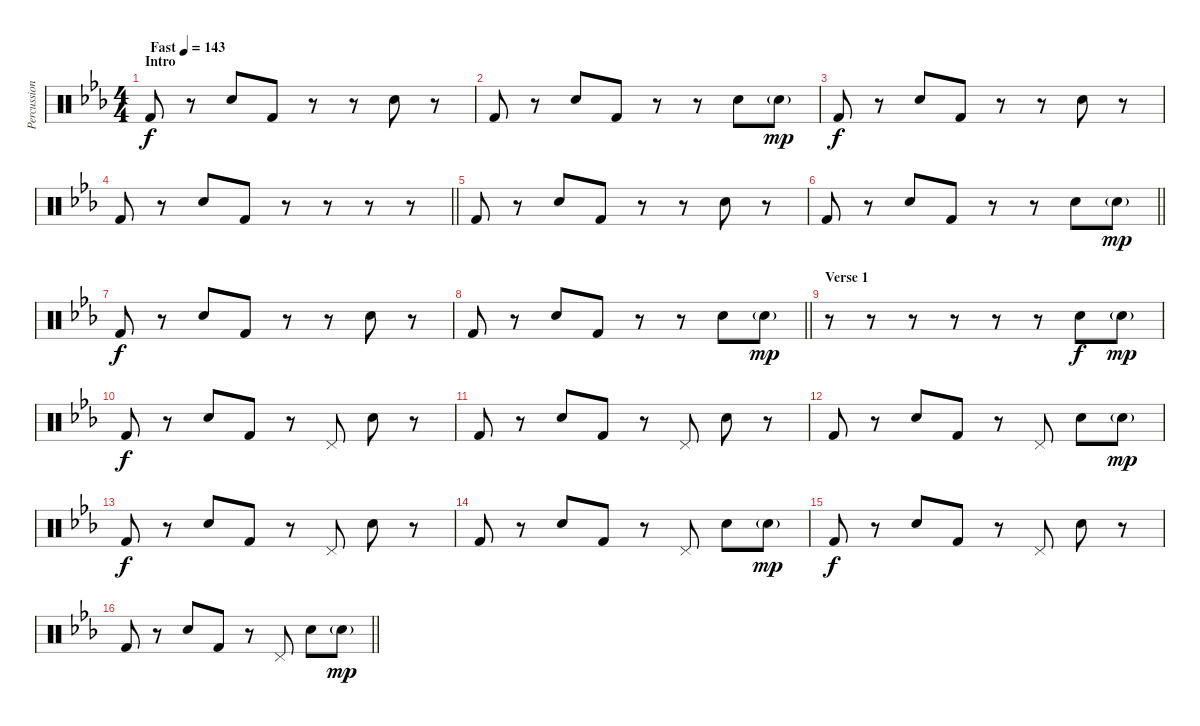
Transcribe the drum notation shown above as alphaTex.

\track ("Percussion" "Percussion") {instrument percussion}
\staff {score}
\articulation defaults
\ts (4 4)
\section ("" "Intro")
\tempo (143 "Fast")
\clef neutral
\ks cminor "Kick (hit) 2".8{dy f}
r.8 "Electric Snare (hit)".8 "Kick (hit) 2".8 r.8 r.8 "Electric Snare (hit)".8 r.8 |
"Kick (hit) 2".8 r.8 "Electric Snare (hit)".8 "Kick (hit) 2".8 r.8 r.8 "Electric Snare (hit)".8 "Electric Snare (hit)"{g}.8{dy mp} |
"Kick (hit) 2".8{dy f} r.8 "Electric Snare (hit)".8 "Kick (hit) 2".8 r.8 r.8 "Electric Snare (hit)".8 r.8 |
\barLineRight lightlight "Kick (hit) 2".8
r.8 "Electric Snare (hit)".8 "Kick (hit) 2".8 r.8 r.8 r.8 r.8 |
"Kick (hit) 2".8 r.8 "Electric Snare (hit)".8 "Kick (hit) 2".8 r.8 r.8 "Electric Snare (hit)".8 r.8 |
\barLineRight lightlight "Kick (hit) 2".8
r.8 "Electric Snare (hit)".8 "Kick (hit) 2".8 r.8 r.8 "Electric Snare (hit)".8 "Electric Snare (hit)"{g}.8{dy mp} |
"Kick (hit) 2".8{dy f} r.8 "Electric Snare (hit)".8 "Kick (hit) 2".8 r.8 r.8 "Electric Snare (hit)".8 r.8 |
\barLineRight lightlight "Kick (hit) 2".8
r.8 "Electric Snare (hit)".8 "Kick (hit) 2".8 r.8 r.8 "Electric Snare (hit)".8 "Electric Snare (hit)"{g}.8{dy mp} |
\section ("" "Verse 1")
r.8 r.8 r.8 r.8 r.8 r.8 "Electric Snare (hit)".8{dy f} "Electric Snare (hit)"{g}.8{dy mp} |
"Kick (hit) 2".8{dy f} r.8 "Electric Snare (hit)".8 "Kick (hit) 2".8 r.8 "Pedal Hi-Hat (hit)".8 "Electric Snare (hit)".8 r.8 |
"Kick (hit) 2".8 r.8 "Electric Snare (hit)".8 "Kick (hit) 2".8 r.8 "Pedal Hi-Hat (hit)".8 "Electric Snare (hit)".8 r.8 |
"Kick (hit) 2".8 r.8 "Electric Snare (hit)".8 "Kick (hit) 2".8 r.8 "Pedal Hi-Hat (hit)".8 "Electric Snare (hit)".8 "Electric Snare (hit)"{g}.8{dy mp} |
"Kick (hit) 2".8{dy f} r.8 "Electric Snare (hit)".8 "Kick (hit) 2".8 r.8 "Pedal Hi-Hat (hit)".8 "Electric Snare (hit)".8 r.8 |
"Kick (hit) 2".8 r.8 "Electric Snare (hit)".8 "Kick (hit) 2".8 r.8 "Pedal Hi-Hat (hit)".8 "Electric Snare (hit)".8 "Electric Snare (hit)"{g}.8{dy mp} |
"Kick (hit) 2".8{dy f} r.8 "Electric Snare (hit)".8 "Kick (hit) 2".8 r.8 "Pedal Hi-Hat (hit)".8 "Electric Snare (hit)".8 r.8 |
\barLineRight lightlight "Kick (hit) 2".8
r.8 "Electric Snare (hit)".8 "Kick (hit) 2".8 r.8 "Pedal Hi-Hat (hit)".8 "Electric Snare (hit)".8 "Electric Snare (hit)"{g}.8{dy mp}
